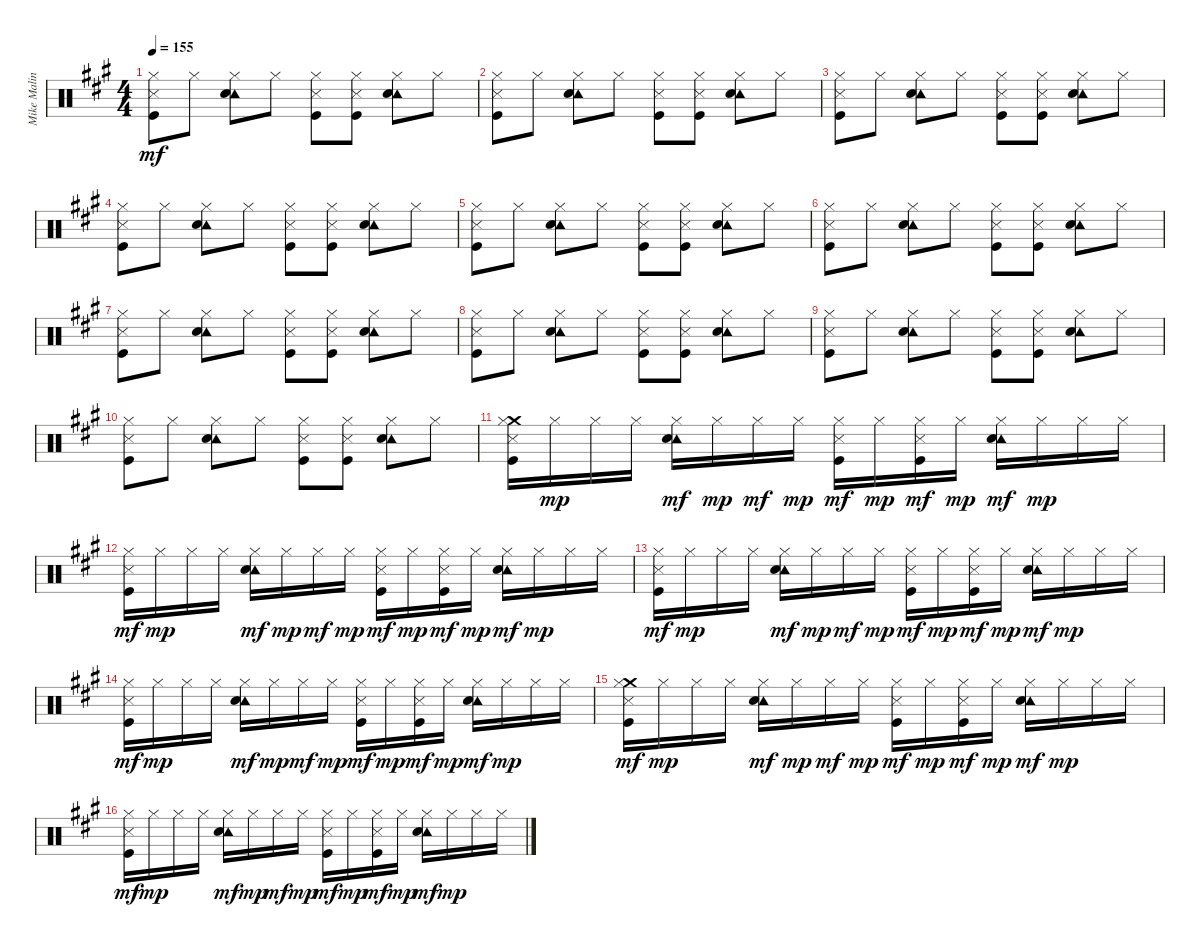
\track ("Mike Malinin - Drums" "Mike Malin") {instrument percussion}
\staff {score}
\articulation defaults
\ts (4 4)
\tempo 155
\clef neutral
\ks a
("Hi-Hat (closed)" "Metronome (hit)" "Kick (hit)").8{dy mf} "Hi-Hat (closed)".8 ("Tambourine (hit)" "Hi-Hat (closed)" "Electric Snare (hit)").8 "Hi-Hat (closed)".8 ("Hi-Hat (closed)" "Metronome (hit)" "Kick (hit)").8 ("Hi-Hat (closed)" "Metronome (hit)" "Kick (hit)").8 ("Tambourine (hit)" "Hi-Hat (closed)" "Electric Snare (hit)").8 "Hi-Hat (closed)".8 |
("Hi-Hat (closed)" "Metronome (hit)" "Kick (hit)").8 "Hi-Hat (closed)".8 ("Tambourine (hit)" "Hi-Hat (closed)" "Electric Snare (hit)").8 "Hi-Hat (closed)".8 ("Hi-Hat (closed)" "Metronome (hit)" "Kick (hit)").8 ("Hi-Hat (closed)" "Metronome (hit)" "Kick (hit)").8 ("Tambourine (hit)" "Hi-Hat (closed)" "Electric Snare (hit)").8 "Hi-Hat (closed)".8 |
("Hi-Hat (closed)" "Metronome (hit)" "Kick (hit)").8 "Hi-Hat (closed)".8 ("Tambourine (hit)" "Hi-Hat (closed)" "Electric Snare (hit)").8 "Hi-Hat (closed)".8 ("Hi-Hat (closed)" "Metronome (hit)" "Kick (hit)").8 ("Hi-Hat (closed)" "Metronome (hit)" "Kick (hit)").8 ("Tambourine (hit)" "Hi-Hat (closed)" "Electric Snare (hit)").8 "Hi-Hat (closed)".8 |
("Hi-Hat (closed)" "Metronome (hit)" "Kick (hit)").8 "Hi-Hat (closed)".8 ("Tambourine (hit)" "Hi-Hat (closed)" "Electric Snare (hit)").8 "Hi-Hat (closed)".8 ("Hi-Hat (closed)" "Metronome (hit)" "Kick (hit)").8 ("Hi-Hat (closed)" "Metronome (hit)" "Kick (hit)").8 ("Tambourine (hit)" "Hi-Hat (closed)" "Electric Snare (hit)").8 "Hi-Hat (closed)".8 |
("Hi-Hat (closed)" "Metronome (hit)" "Kick (hit)").8 "Hi-Hat (closed)".8 ("Tambourine (hit)" "Hi-Hat (closed)" "Electric Snare (hit)").8 "Hi-Hat (closed)".8 ("Hi-Hat (closed)" "Metronome (hit)" "Kick (hit)").8 ("Hi-Hat (closed)" "Metronome (hit)" "Kick (hit)").8 ("Tambourine (hit)" "Hi-Hat (closed)" "Electric Snare (hit)").8 "Hi-Hat (closed)".8 |
("Hi-Hat (closed)" "Metronome (hit)" "Kick (hit)").8 "Hi-Hat (closed)".8 ("Tambourine (hit)" "Hi-Hat (closed)" "Electric Snare (hit)").8 "Hi-Hat (closed)".8 ("Hi-Hat (closed)" "Metronome (hit)" "Kick (hit)").8 ("Hi-Hat (closed)" "Metronome (hit)" "Kick (hit)").8 ("Tambourine (hit)" "Hi-Hat (closed)" "Electric Snare (hit)").8 "Hi-Hat (closed)".8 |
("Hi-Hat (closed)" "Metronome (hit)" "Kick (hit)").8 "Hi-Hat (closed)".8 ("Tambourine (hit)" "Hi-Hat (closed)" "Electric Snare (hit)").8 "Hi-Hat (closed)".8 ("Hi-Hat (closed)" "Metronome (hit)" "Kick (hit)").8 ("Hi-Hat (closed)" "Metronome (hit)" "Kick (hit)").8 ("Tambourine (hit)" "Hi-Hat (closed)" "Electric Snare (hit)").8 "Hi-Hat (closed)".8 |
("Hi-Hat (closed)" "Metronome (hit)" "Kick (hit)").8 "Hi-Hat (closed)".8 ("Tambourine (hit)" "Hi-Hat (closed)" "Electric Snare (hit)").8 "Hi-Hat (closed)".8 ("Hi-Hat (closed)" "Metronome (hit)" "Kick (hit)").8 ("Hi-Hat (closed)" "Metronome (hit)" "Kick (hit)").8 ("Tambourine (hit)" "Hi-Hat (closed)" "Electric Snare (hit)").8 "Hi-Hat (closed)".8 |
("Hi-Hat (closed)" "Metronome (hit)" "Kick (hit)").8 "Hi-Hat (closed)".8 ("Tambourine (hit)" "Hi-Hat (closed)" "Electric Snare (hit)").8 "Hi-Hat (closed)".8 ("Hi-Hat (closed)" "Metronome (hit)" "Kick (hit)").8 ("Hi-Hat (closed)" "Metronome (hit)" "Kick (hit)").8 ("Tambourine (hit)" "Hi-Hat (closed)" "Electric Snare (hit)").8 "Hi-Hat (closed)".8 |
("Hi-Hat (closed)" "Metronome (hit)" "Kick (hit)").8 "Hi-Hat (closed)".8 ("Tambourine (hit)" "Hi-Hat (closed)" "Electric Snare (hit)").8 "Hi-Hat (closed)".8 ("Hi-Hat (closed)" "Metronome (hit)" "Kick (hit)").8 ("Hi-Hat (closed)" "Metronome (hit)" "Kick (hit)").8 ("Tambourine (hit)" "Hi-Hat (closed)" "Electric Snare (hit)").8 "Hi-Hat (closed)".8 |
("Crash medium (hit)" "Hi-Hat (closed)" "Metronome (hit)" "Kick (hit)").16 "Hi-Hat (closed)".16{dy mp} "Hi-Hat (closed)".16 "Hi-Hat (closed)".16 ("Tambourine (hit)" "Hi-Hat (closed)" "Electric Snare (hit)").16{dy mf} "Hi-Hat (closed)".16{dy mp} "Hi-Hat (closed)".16{dy mf} "Hi-Hat (closed)".16{dy mp} ("Hi-Hat (closed)" "Metronome (hit)" "Kick (hit)").16{dy mf} "Hi-Hat (closed)".16{dy mp} ("Hi-Hat (closed)" "Metronome (hit)" "Kick (hit)").16{dy mf} "Hi-Hat (closed)".16{dy mp} ("Tambourine (hit)" "Hi-Hat (closed)" "Electric Snare (hit)").16{dy mf} "Hi-Hat (closed)".16{dy mp} "Hi-Hat (closed)".16 "Hi-Hat (closed)".16 |
("Hi-Hat (closed)" "Metronome (hit)" "Kick (hit)").16{dy mf} "Hi-Hat (closed)".16{dy mp} "Hi-Hat (closed)".16 "Hi-Hat (closed)".16 ("Tambourine (hit)" "Hi-Hat (closed)" "Electric Snare (hit)").16{dy mf} "Hi-Hat (closed)".16{dy mp} "Hi-Hat (closed)".16{dy mf} "Hi-Hat (closed)".16{dy mp} ("Hi-Hat (closed)" "Metronome (hit)" "Kick (hit)").16{dy mf} "Hi-Hat (closed)".16{dy mp} ("Hi-Hat (closed)" "Metronome (hit)" "Kick (hit)").16{dy mf} "Hi-Hat (closed)".16{dy mp} ("Tambourine (hit)" "Hi-Hat (closed)" "Electric Snare (hit)").16{dy mf} "Hi-Hat (closed)".16{dy mp} "Hi-Hat (closed)".16 "Hi-Hat (closed)".16 |
("Hi-Hat (closed)" "Metronome (hit)" "Kick (hit)").16{dy mf} "Hi-Hat (closed)".16{dy mp} "Hi-Hat (closed)".16 "Hi-Hat (closed)".16 ("Tambourine (hit)" "Hi-Hat (closed)" "Electric Snare (hit)").16{dy mf} "Hi-Hat (closed)".16{dy mp} "Hi-Hat (closed)".16{dy mf} "Hi-Hat (closed)".16{dy mp} ("Hi-Hat (closed)" "Metronome (hit)" "Kick (hit)").16{dy mf} "Hi-Hat (closed)".16{dy mp} ("Hi-Hat (closed)" "Metronome (hit)" "Kick (hit)").16{dy mf} "Hi-Hat (closed)".16{dy mp} ("Tambourine (hit)" "Hi-Hat (closed)" "Electric Snare (hit)").16{dy mf} "Hi-Hat (closed)".16{dy mp} "Hi-Hat (closed)".16 "Hi-Hat (closed)".16 |
("Hi-Hat (closed)" "Metronome (hit)" "Kick (hit)").16{dy mf} "Hi-Hat (closed)".16{dy mp} "Hi-Hat (closed)".16 "Hi-Hat (closed)".16 ("Tambourine (hit)" "Hi-Hat (closed)" "Electric Snare (hit)").16{dy mf} "Hi-Hat (closed)".16{dy mp} "Hi-Hat (closed)".16{dy mf} "Hi-Hat (closed)".16{dy mp} ("Hi-Hat (closed)" "Metronome (hit)" "Kick (hit)").16{dy mf} "Hi-Hat (closed)".16{dy mp} ("Hi-Hat (closed)" "Metronome (hit)" "Kick (hit)").16{dy mf} "Hi-Hat (closed)".16{dy mp} ("Tambourine (hit)" "Hi-Hat (closed)" "Electric Snare (hit)").16{dy mf} "Hi-Hat (closed)".16{dy mp} "Hi-Hat (closed)".16 "Hi-Hat (closed)".16 |
("Crash medium (hit)" "Hi-Hat (closed)" "Metronome (hit)" "Kick (hit)").16{dy mf} "Hi-Hat (closed)".16{dy mp} "Hi-Hat (closed)".16 "Hi-Hat (closed)".16 ("Tambourine (hit)" "Hi-Hat (closed)" "Electric Snare (hit)").16{dy mf} "Hi-Hat (closed)".16{dy mp} "Hi-Hat (closed)".16{dy mf} "Hi-Hat (closed)".16{dy mp} ("Hi-Hat (closed)" "Metronome (hit)" "Kick (hit)").16{dy mf} "Hi-Hat (closed)".16{dy mp} ("Hi-Hat (closed)" "Metronome (hit)" "Kick (hit)").16{dy mf} "Hi-Hat (closed)".16{dy mp} ("Tambourine (hit)" "Hi-Hat (closed)" "Electric Snare (hit)").16{dy mf} "Hi-Hat (closed)".16{dy mp} "Hi-Hat (closed)".16 "Hi-Hat (closed)".16 |
("Hi-Hat (closed)" "Metronome (hit)" "Kick (hit)").16{dy mf} "Hi-Hat (closed)".16{dy mp} "Hi-Hat (closed)".16 "Hi-Hat (closed)".16 ("Tambourine (hit)" "Hi-Hat (closed)" "Electric Snare (hit)").16{dy mf} "Hi-Hat (closed)".16{dy mp} "Hi-Hat (closed)".16{dy mf} "Hi-Hat (closed)".16{dy mp} ("Hi-Hat (closed)" "Metronome (hit)" "Kick (hit)").16{dy mf} "Hi-Hat (closed)".16{dy mp} ("Hi-Hat (closed)" "Metronome (hit)" "Kick (hit)").16{dy mf} "Hi-Hat (closed)".16{dy mp} ("Tambourine (hit)" "Hi-Hat (closed)" "Electric Snare (hit)").16{dy mf} "Hi-Hat (closed)".16{dy mp} "Hi-Hat (closed)".16 "Hi-Hat (closed)".16
